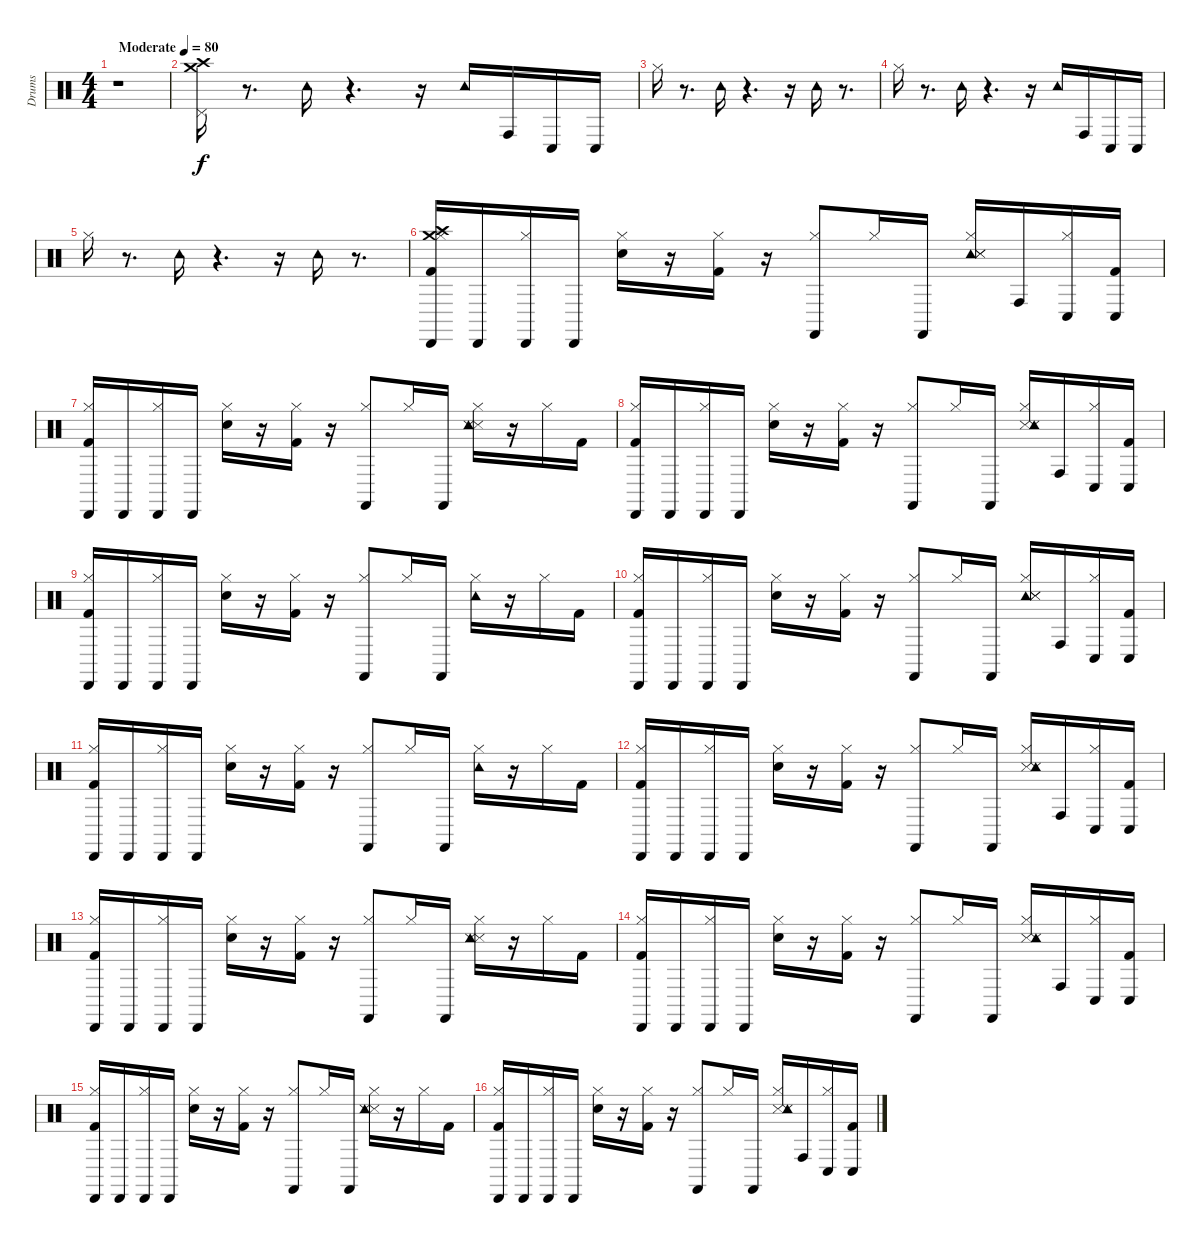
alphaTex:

\track ("Drums" "Drums") {instrument percussion}
\staff {score}
\articulation defaults
\ts (4 4)
\tempo (80 "Moderate")
\clef neutral
\ks c
r.1{dy f} |
("Crash high (hit)" "Crash medium (hit)" "Pedal Hi-Hat (hit)").16 r.8{d} "Tambourine (hit)".16 r.4{d} r.16 "Tambourine (hit)".16 "Conga high (hit)".16 "Conga low (hit)".16 "Conga low (hit)".16 |
"Hi-Hat (closed)".16 r.8{d} "Tambourine (hit)".16 r.4{d} r.16 "Tambourine (hit)".16 r.8{d} |
"Hi-Hat (closed)".16 r.8{d} "Tambourine (hit)".16 r.4{d} r.16 "Tambourine (hit)".16 "Conga high (hit)".16 "Conga low (hit)".16 "Conga low (hit)".16 |
"Hi-Hat (closed)".16 r.8{d} "Tambourine (hit)".16 r.4{d} r.16 "Tambourine (hit)".16 r.8{d} |
("Crash medium (hit)" "Hi-Hat (closed)" "Kick (hit) 2" "Cabasa (hit)" "Crash high (hit)").16 "Cabasa (hit)".16 ("Cabasa (hit)" "Hi-Hat (closed)").16 "Cabasa (hit)".16 ("Hi-Hat (closed)" "Electric Snare (hit)").16 r.16 ("Kick (hit) 2" "Hi-Hat (closed)").16 r.16 ("Hi-Hat (closed)" "Castanets (hit)").8 "Hi-Hat (closed)".16 "Castanets (hit)".16 ("Tambourine (hit)" "Metronome (hit)" "Hi-Hat (closed)" "Snare (side stick) 3").16 "Conga high (hit)".16 ("Conga low (hit)" "Hi-Hat (closed)").16 ("Kick (hit) 2" "Conga low (hit)").16 |
("Hi-Hat (closed)" "Kick (hit) 2" "Cabasa (hit)").16 "Cabasa (hit)".16 ("Cabasa (hit)" "Hi-Hat (closed)").16 "Cabasa (hit)".16 ("Hi-Hat (closed)" "Electric Snare (hit)").16 r.16 ("Kick (hit) 2" "Hi-Hat (closed)").16 r.16 ("Castanets (hit)" "Hi-Hat (closed)").8 "Hi-Hat (closed)".16 "Castanets (hit)".16 ("Metronome (hit)" "Snare (side stick) 3" "Hi-Hat (closed)" "Tambourine (hit)").16 r.16 "Hi-Hat (closed)".16 "Kick (hit) 2".16 |
("Cabasa (hit)" "Hi-Hat (closed)" "Kick (hit) 2").16 "Cabasa (hit)".16 ("Cabasa (hit)" "Hi-Hat (closed)").16 "Cabasa (hit)".16 ("Hi-Hat (closed)" "Electric Snare (hit)").16 r.16 ("Kick (hit) 2" "Hi-Hat (closed)").16 r.16 ("Hi-Hat (closed)" "Castanets (hit)").8 "Hi-Hat (closed)".16 "Castanets (hit)".16 ("Metronome (hit)" "Snare (side stick) 3" "Tambourine (hit)" "Hi-Hat (closed)").16 "Conga high (hit)".16 ("Conga low (hit)" "Hi-Hat (closed)").16 ("Conga low (hit)" "Kick (hit) 2").16 |
("Cabasa (hit)" "Kick (hit) 2" "Hi-Hat (closed)").16 "Cabasa (hit)".16 ("Cabasa (hit)" "Hi-Hat (closed)").16 "Cabasa (hit)".16 ("Hi-Hat (closed)" "Electric Snare (hit)").16 r.16 ("Kick (hit) 2" "Hi-Hat (closed)").16 r.16 ("Castanets (hit)" "Hi-Hat (closed)").8 "Hi-Hat (closed)".16 "Castanets (hit)".16 ("Tambourine (hit)" "Hi-Hat (closed)").16 r.16 "Hi-Hat (closed)".16 "Kick (hit) 2".16 |
("Cabasa (hit)" "Hi-Hat (closed)" "Kick (hit) 2").16 "Cabasa (hit)".16 ("Cabasa (hit)" "Hi-Hat (closed)").16 "Cabasa (hit)".16 ("Hi-Hat (closed)" "Electric Snare (hit)").16 r.16 ("Kick (hit) 2" "Hi-Hat (closed)").16 r.16 ("Castanets (hit)" "Hi-Hat (closed)").8 "Hi-Hat (closed)".16 "Castanets (hit)".16 ("Tambourine (hit)" "Metronome (hit)" "Hi-Hat (closed)" "Snare (side stick) 3").16 "Conga high (hit)".16 ("Hi-Hat (closed)" "Conga low (hit)").16 ("Kick (hit) 2" "Conga low (hit)").16 |
("Hi-Hat (closed)" "Kick (hit) 2" "Cabasa (hit)").16 "Cabasa (hit)".16 ("Hi-Hat (closed)" "Cabasa (hit)").16 "Cabasa (hit)".16 ("Hi-Hat (closed)" "Electric Snare (hit)").16 r.16 ("Kick (hit) 2" "Hi-Hat (closed)").16 r.16 ("Castanets (hit)" "Hi-Hat (closed)").8 "Hi-Hat (closed)".16 "Castanets (hit)".16 ("Tambourine (hit)" "Hi-Hat (closed)").16 r.16 "Hi-Hat (closed)".16 "Kick (hit) 2".16 |
("Hi-Hat (closed)" "Kick (hit) 2" "Cabasa (hit)").16 "Cabasa (hit)".16 ("Cabasa (hit)" "Hi-Hat (closed)").16 "Cabasa (hit)".16 ("Hi-Hat (closed)" "Electric Snare (hit)").16 r.16 ("Kick (hit) 2" "Hi-Hat (closed)").16 r.16 ("Castanets (hit)" "Hi-Hat (closed)").8 "Hi-Hat (closed)".16 "Castanets (hit)".16 ("Metronome (hit)" "Snare (side stick) 3" "Hi-Hat (closed)" "Tambourine (hit)").16 "Conga high (hit)".16 ("Hi-Hat (closed)" "Conga low (hit)").16 ("Kick (hit) 2" "Conga low (hit)").16 |
("Hi-Hat (closed)" "Kick (hit) 2" "Cabasa (hit)").16 "Cabasa (hit)".16 ("Cabasa (hit)" "Hi-Hat (closed)").16 "Cabasa (hit)".16 ("Electric Snare (hit)" "Hi-Hat (closed)").16 r.16 ("Hi-Hat (closed)" "Kick (hit) 2").16 r.16 ("Hi-Hat (closed)" "Castanets (hit)").8 "Hi-Hat (closed)".16 "Castanets (hit)".16 ("Metronome (hit)" "Snare (side stick) 3" "Tambourine (hit)" "Hi-Hat (closed)").16 r.16 "Hi-Hat (closed)".16 "Kick (hit) 2".16 |
("Hi-Hat (closed)" "Kick (hit) 2" "Cabasa (hit)").16 "Cabasa (hit)".16 ("Cabasa (hit)" "Hi-Hat (closed)").16 "Cabasa (hit)".16 ("Hi-Hat (closed)" "Electric Snare (hit)").16 r.16 ("Kick (hit) 2" "Hi-Hat (closed)").16 r.16 ("Castanets (hit)" "Hi-Hat (closed)").8 "Hi-Hat (closed)".16 "Castanets (hit)".16 ("Metronome (hit)" "Snare (side stick) 3" "Hi-Hat (closed)" "Tambourine (hit)").16 "Conga high (hit)".16 ("Hi-Hat (closed)" "Conga low (hit)").16 ("Kick (hit) 2" "Conga low (hit)").16 |
("Hi-Hat (closed)" "Kick (hit) 2" "Cabasa (hit)").16 "Cabasa (hit)".16 ("Cabasa (hit)" "Hi-Hat (closed)").16 "Cabasa (hit)".16 ("Electric Snare (hit)" "Hi-Hat (closed)").16 r.16 ("Hi-Hat (closed)" "Kick (hit) 2").16 r.16 ("Hi-Hat (closed)" "Castanets (hit)").8 "Hi-Hat (closed)".16 "Castanets (hit)".16 ("Metronome (hit)" "Snare (side stick) 3" "Tambourine (hit)" "Hi-Hat (closed)").16 r.16 "Hi-Hat (closed)".16 "Kick (hit) 2".16 |
("Hi-Hat (closed)" "Kick (hit) 2" "Cabasa (hit)").16 "Cabasa (hit)".16 ("Cabasa (hit)" "Hi-Hat (closed)").16 "Cabasa (hit)".16 ("Hi-Hat (closed)" "Electric Snare (hit)").16 r.16 ("Kick (hit) 2" "Hi-Hat (closed)").16 r.16 ("Castanets (hit)" "Hi-Hat (closed)").8 "Hi-Hat (closed)".16 "Castanets (hit)".16 ("Metronome (hit)" "Snare (side stick) 3" "Hi-Hat (closed)" "Tambourine (hit)").16 "Conga high (hit)".16 ("Hi-Hat (closed)" "Conga low (hit)").16 ("Kick (hit) 2" "Conga low (hit)").16
